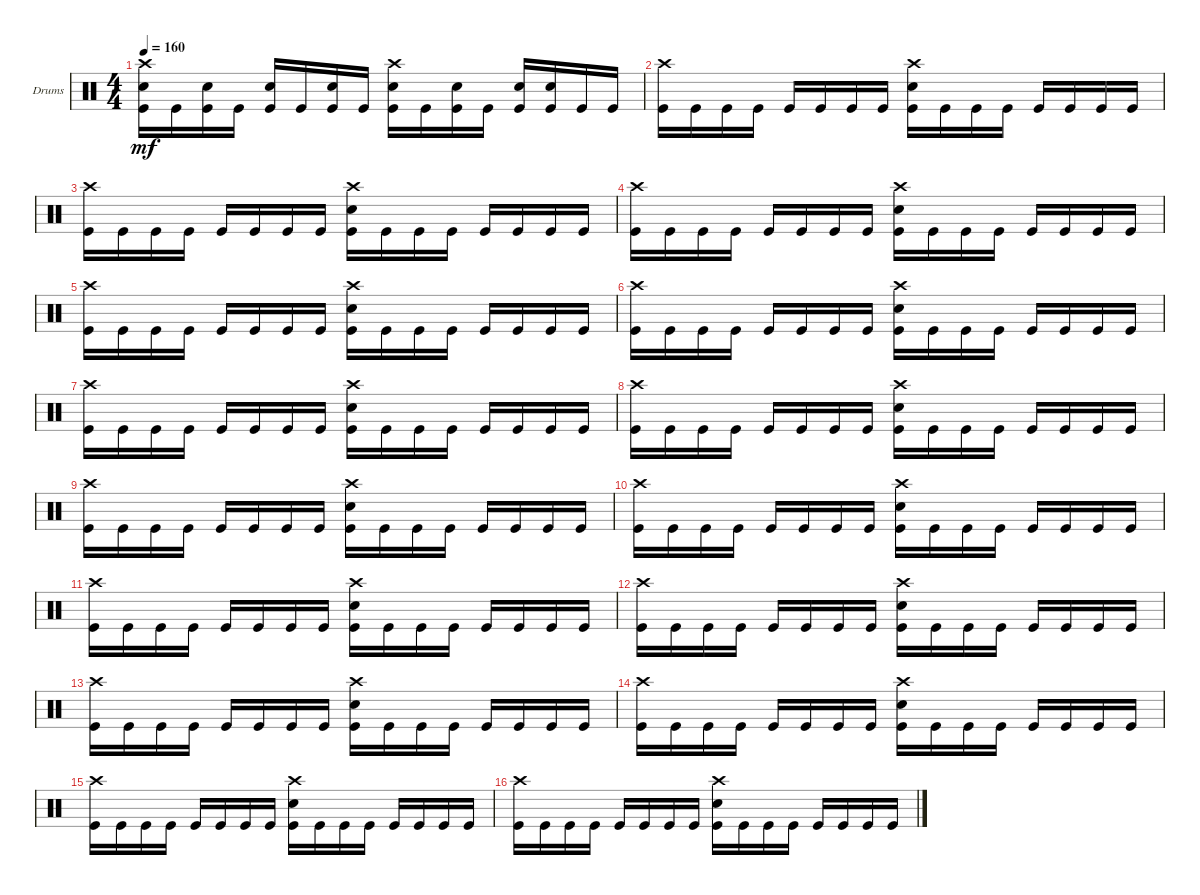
\bracketExtendMode groupsimilarinstruments
\firstSystemTrackNameOrientation horizontal
\otherSystemsTrackNameOrientation horizontal
\track ("Drums" "Drums") {instrument percussion}
\staff {score}
\articulation defaults
\ts (4 4)
\tempo 160
\clef neutral
\scale
0.333333
\ks c
("Kick (hit)" "Snare (hit) 2" "Crash high (hit)").16{dy mf} "Kick (hit)".16 ("Kick (hit)" "Snare (hit) 2").16 "Kick (hit)".16 ("Kick (hit)" "Snare (hit) 2").16 "Kick (hit)".16 ("Kick (hit)" "Snare (hit) 2").16 "Kick (hit)".16 ("Kick (hit)" "Snare (hit) 2" "Crash high (hit)").16 "Kick (hit)".16 ("Kick (hit)" "Snare (hit) 2").16 "Kick (hit)".16 ("Kick (hit)" "Snare (hit) 2").16 ("Kick (hit)" "Snare (hit) 2").16 "Kick (hit)".16 "Kick (hit)".16 |
\scale
0.333333 ("Kick (hit)" "Crash high (hit)").16 "Kick (hit)".16 "Kick (hit)".16 "Kick (hit)".16 "Kick (hit)".16 "Kick (hit)".16 "Kick (hit)".16 "Kick (hit)".16 ("Kick (hit)" "Crash high (hit)" "Snare (hit) 2").16 "Kick (hit)".16 "Kick (hit)".16 "Kick (hit)".16 "Kick (hit)".16 "Kick (hit)".16 "Kick (hit)".16 "Kick (hit)".16 |
\scale
0.333333 ("Kick (hit)" "Crash high (hit)").16 "Kick (hit)".16 "Kick (hit)".16 "Kick (hit)".16 "Kick (hit)".16 "Kick (hit)".16 "Kick (hit)".16 "Kick (hit)".16 ("Kick (hit)" "Crash high (hit)" "Snare (hit) 2").16 "Kick (hit)".16 "Kick (hit)".16 "Kick (hit)".16 "Kick (hit)".16 "Kick (hit)".16 "Kick (hit)".16 "Kick (hit)".16 |
\scale
0.333333 ("Kick (hit)" "Crash high (hit)").16 "Kick (hit)".16 "Kick (hit)".16 "Kick (hit)".16 "Kick (hit)".16 "Kick (hit)".16 "Kick (hit)".16 "Kick (hit)".16 ("Kick (hit)" "Crash high (hit)" "Snare (hit) 2").16 "Kick (hit)".16 "Kick (hit)".16 "Kick (hit)".16 "Kick (hit)".16 "Kick (hit)".16 "Kick (hit)".16 "Kick (hit)".16 |
\scale
0.333333 ("Kick (hit)" "Crash high (hit)").16 "Kick (hit)".16 "Kick (hit)".16 "Kick (hit)".16 "Kick (hit)".16 "Kick (hit)".16 "Kick (hit)".16 "Kick (hit)".16 ("Kick (hit)" "Crash high (hit)" "Snare (hit) 2").16 "Kick (hit)".16 "Kick (hit)".16 "Kick (hit)".16 "Kick (hit)".16 "Kick (hit)".16 "Kick (hit)".16 "Kick (hit)".16 |
\scale
0.333333 ("Kick (hit)" "Crash high (hit)").16 "Kick (hit)".16 "Kick (hit)".16 "Kick (hit)".16 "Kick (hit)".16 "Kick (hit)".16 "Kick (hit)".16 "Kick (hit)".16 ("Kick (hit)" "Crash high (hit)" "Snare (hit) 2").16 "Kick (hit)".16 "Kick (hit)".16 "Kick (hit)".16 "Kick (hit)".16 "Kick (hit)".16 "Kick (hit)".16 "Kick (hit)".16 |
\scale
0.333333 ("Kick (hit)" "Crash high (hit)").16 "Kick (hit)".16 "Kick (hit)".16 "Kick (hit)".16 "Kick (hit)".16 "Kick (hit)".16 "Kick (hit)".16 "Kick (hit)".16 ("Kick (hit)" "Crash high (hit)" "Snare (hit) 2").16 "Kick (hit)".16 "Kick (hit)".16 "Kick (hit)".16 "Kick (hit)".16 "Kick (hit)".16 "Kick (hit)".16 "Kick (hit)".16 |
\scale
0.333333 ("Kick (hit)" "Crash high (hit)").16 "Kick (hit)".16 "Kick (hit)".16 "Kick (hit)".16 "Kick (hit)".16 "Kick (hit)".16 "Kick (hit)".16 "Kick (hit)".16 ("Kick (hit)" "Crash high (hit)" "Snare (hit) 2").16 "Kick (hit)".16 "Kick (hit)".16 "Kick (hit)".16 "Kick (hit)".16 "Kick (hit)".16 "Kick (hit)".16 "Kick (hit)".16 |
\scale
0.333333 ("Kick (hit)" "Crash high (hit)").16 "Kick (hit)".16 "Kick (hit)".16 "Kick (hit)".16 "Kick (hit)".16 "Kick (hit)".16 "Kick (hit)".16 "Kick (hit)".16 ("Kick (hit)" "Crash high (hit)" "Snare (hit) 2").16 "Kick (hit)".16 "Kick (hit)".16 "Kick (hit)".16 "Kick (hit)".16 "Kick (hit)".16 "Kick (hit)".16 "Kick (hit)".16 |
\scale
0.333333 ("Kick (hit)" "Crash high (hit)").16 "Kick (hit)".16 "Kick (hit)".16 "Kick (hit)".16 "Kick (hit)".16 "Kick (hit)".16 "Kick (hit)".16 "Kick (hit)".16 ("Kick (hit)" "Crash high (hit)" "Snare (hit) 2").16 "Kick (hit)".16 "Kick (hit)".16 "Kick (hit)".16 "Kick (hit)".16 "Kick (hit)".16 "Kick (hit)".16 "Kick (hit)".16 |
\scale
0.333333 ("Kick (hit)" "Crash high (hit)").16 "Kick (hit)".16 "Kick (hit)".16 "Kick (hit)".16 "Kick (hit)".16 "Kick (hit)".16 "Kick (hit)".16 "Kick (hit)".16 ("Kick (hit)" "Crash high (hit)" "Snare (hit) 2").16 "Kick (hit)".16 "Kick (hit)".16 "Kick (hit)".16 "Kick (hit)".16 "Kick (hit)".16 "Kick (hit)".16 "Kick (hit)".16 |
\scale
0.333333 ("Kick (hit)" "Crash high (hit)").16 "Kick (hit)".16 "Kick (hit)".16 "Kick (hit)".16 "Kick (hit)".16 "Kick (hit)".16 "Kick (hit)".16 "Kick (hit)".16 ("Kick (hit)" "Crash high (hit)" "Snare (hit) 2").16 "Kick (hit)".16 "Kick (hit)".16 "Kick (hit)".16 "Kick (hit)".16 "Kick (hit)".16 "Kick (hit)".16 "Kick (hit)".16 |
\scale
0.333333 ("Kick (hit)" "Crash high (hit)").16 "Kick (hit)".16 "Kick (hit)".16 "Kick (hit)".16 "Kick (hit)".16 "Kick (hit)".16 "Kick (hit)".16 "Kick (hit)".16 ("Kick (hit)" "Crash high (hit)" "Snare (hit) 2").16 "Kick (hit)".16 "Kick (hit)".16 "Kick (hit)".16 "Kick (hit)".16 "Kick (hit)".16 "Kick (hit)".16 "Kick (hit)".16 |
\scale
0.333333 ("Kick (hit)" "Crash high (hit)").16 "Kick (hit)".16 "Kick (hit)".16 "Kick (hit)".16 "Kick (hit)".16 "Kick (hit)".16 "Kick (hit)".16 "Kick (hit)".16 ("Kick (hit)" "Crash high (hit)" "Snare (hit) 2").16 "Kick (hit)".16 "Kick (hit)".16 "Kick (hit)".16 "Kick (hit)".16 "Kick (hit)".16 "Kick (hit)".16 "Kick (hit)".16 |
\scale
0.333333 ("Kick (hit)" "Crash high (hit)").16 "Kick (hit)".16 "Kick (hit)".16 "Kick (hit)".16 "Kick (hit)".16 "Kick (hit)".16 "Kick (hit)".16 "Kick (hit)".16 ("Kick (hit)" "Crash high (hit)" "Snare (hit) 2").16 "Kick (hit)".16 "Kick (hit)".16 "Kick (hit)".16 "Kick (hit)".16 "Kick (hit)".16 "Kick (hit)".16 "Kick (hit)".16 |
\scale
0.333333 ("Kick (hit)" "Crash high (hit)").16 "Kick (hit)".16 "Kick (hit)".16 "Kick (hit)".16 "Kick (hit)".16 "Kick (hit)".16 "Kick (hit)".16 "Kick (hit)".16 ("Kick (hit)" "Crash high (hit)" "Snare (hit) 2").16 "Kick (hit)".16 "Kick (hit)".16 "Kick (hit)".16 "Kick (hit)".16 "Kick (hit)".16 "Kick (hit)".16 "Kick (hit)".16
